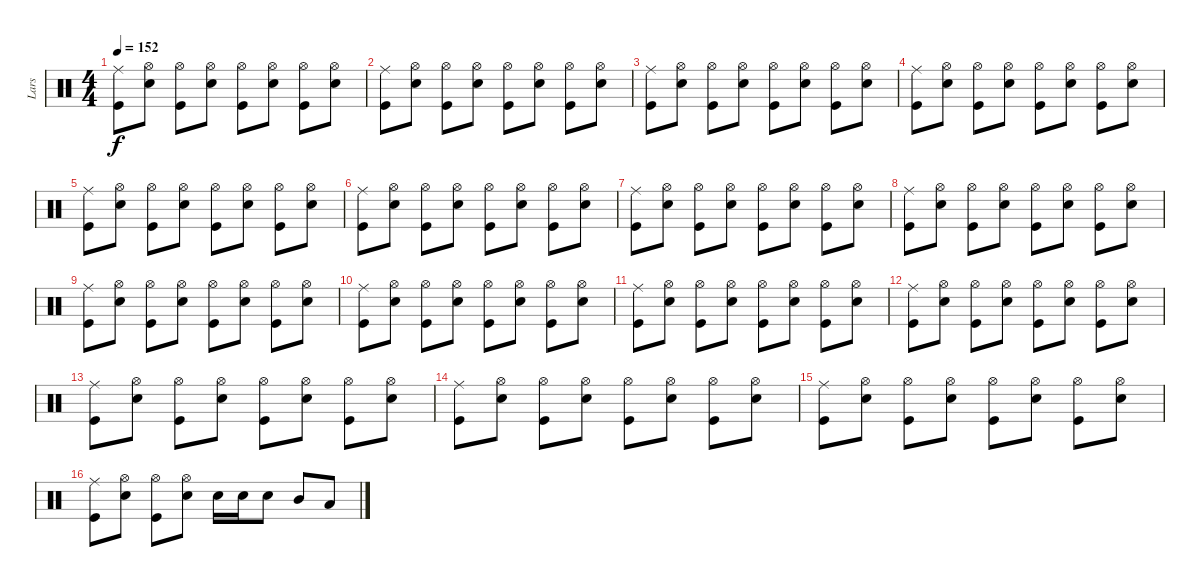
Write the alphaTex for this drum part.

\track ("Lars" "Lars") {instrument percussion}
\staff {score}
\articulation defaults
\ts (4 4)
\tempo 152
\clef neutral
\ks c
("Ride (middle)" "Kick (hit)").8{dy f} ("Hi-Hat (open)" "Snare (hit) 2").8 ("Hi-Hat (open)" "Kick (hit)").8 ("Hi-Hat (open)" "Snare (hit) 2").8 ("Hi-Hat (open)" "Kick (hit)").8 ("Hi-Hat (open)" "Snare (hit) 2").8 ("Hi-Hat (open)" "Kick (hit)").8 ("Hi-Hat (open)" "Snare (hit) 2").8 |
("Ride (middle)" "Kick (hit)").8 ("Hi-Hat (open)" "Snare (hit) 2").8 ("Hi-Hat (open)" "Kick (hit)").8 ("Hi-Hat (open)" "Snare (hit) 2").8 ("Hi-Hat (open)" "Kick (hit)").8 ("Hi-Hat (open)" "Snare (hit) 2").8 ("Hi-Hat (open)" "Kick (hit)").8 ("Hi-Hat (open)" "Snare (hit) 2").8 |
("Ride (middle)" "Kick (hit)").8 ("Hi-Hat (open)" "Snare (hit) 2").8 ("Hi-Hat (open)" "Kick (hit)").8 ("Hi-Hat (open)" "Snare (hit) 2").8 ("Hi-Hat (open)" "Kick (hit)").8 ("Hi-Hat (open)" "Snare (hit) 2").8 ("Hi-Hat (open)" "Kick (hit)").8 ("Hi-Hat (open)" "Snare (hit) 2").8 |
("Ride (middle)" "Kick (hit)").8 ("Hi-Hat (open)" "Snare (hit) 2").8 ("Hi-Hat (open)" "Kick (hit)").8 ("Hi-Hat (open)" "Snare (hit) 2").8 ("Hi-Hat (open)" "Kick (hit)").8 ("Hi-Hat (open)" "Snare (hit) 2").8 ("Hi-Hat (open)" "Kick (hit)").8 ("Hi-Hat (open)" "Snare (hit) 2").8 |
("Ride (middle)" "Kick (hit)").8 ("Hi-Hat (open)" "Snare (hit) 2").8 ("Hi-Hat (open)" "Kick (hit)").8 ("Hi-Hat (open)" "Snare (hit) 2").8 ("Hi-Hat (open)" "Kick (hit)").8 ("Hi-Hat (open)" "Snare (hit) 2").8 ("Hi-Hat (open)" "Kick (hit)").8 ("Hi-Hat (open)" "Snare (hit) 2").8 |
("Ride (middle)" "Kick (hit)").8 ("Hi-Hat (open)" "Snare (hit) 2").8 ("Hi-Hat (open)" "Kick (hit)").8 ("Hi-Hat (open)" "Snare (hit) 2").8 ("Hi-Hat (open)" "Kick (hit)").8 ("Hi-Hat (open)" "Snare (hit) 2").8 ("Hi-Hat (open)" "Kick (hit)").8 ("Hi-Hat (open)" "Snare (hit) 2").8 |
("Ride (middle)" "Kick (hit)").8 ("Hi-Hat (open)" "Snare (hit) 2").8 ("Hi-Hat (open)" "Kick (hit)").8 ("Hi-Hat (open)" "Snare (hit) 2").8 ("Hi-Hat (open)" "Kick (hit)").8 ("Hi-Hat (open)" "Snare (hit) 2").8 ("Hi-Hat (open)" "Kick (hit)").8 ("Hi-Hat (open)" "Snare (hit) 2").8 |
("Ride (middle)" "Kick (hit)").8 ("Hi-Hat (open)" "Snare (hit) 2").8 ("Hi-Hat (open)" "Kick (hit)").8 ("Hi-Hat (open)" "Snare (hit) 2").8 ("Hi-Hat (open)" "Kick (hit)").8 ("Hi-Hat (open)" "Snare (hit) 2").8 ("Hi-Hat (open)" "Kick (hit)").8 ("Hi-Hat (open)" "Snare (hit) 2").8 |
("Ride (middle)" "Kick (hit)").8 ("Hi-Hat (open)" "Snare (hit) 2").8 ("Hi-Hat (open)" "Kick (hit)").8 ("Hi-Hat (open)" "Snare (hit) 2").8 ("Hi-Hat (open)" "Kick (hit)").8 ("Hi-Hat (open)" "Snare (hit) 2").8 ("Hi-Hat (open)" "Kick (hit)").8 ("Hi-Hat (open)" "Snare (hit) 2").8 |
("Ride (middle)" "Kick (hit)").8 ("Hi-Hat (open)" "Snare (hit) 2").8 ("Hi-Hat (open)" "Kick (hit)").8 ("Hi-Hat (open)" "Snare (hit) 2").8 ("Hi-Hat (open)" "Kick (hit)").8 ("Hi-Hat (open)" "Snare (hit) 2").8 ("Hi-Hat (open)" "Kick (hit)").8 ("Hi-Hat (open)" "Snare (hit) 2").8 |
("Ride (middle)" "Kick (hit)").8 ("Hi-Hat (open)" "Snare (hit) 2").8 ("Hi-Hat (open)" "Kick (hit)").8 ("Hi-Hat (open)" "Snare (hit) 2").8 ("Hi-Hat (open)" "Kick (hit)").8 ("Hi-Hat (open)" "Snare (hit) 2").8 ("Hi-Hat (open)" "Kick (hit)").8 ("Hi-Hat (open)" "Snare (hit) 2").8 |
("Ride (middle)" "Kick (hit)").8 ("Hi-Hat (open)" "Snare (hit) 2").8 ("Hi-Hat (open)" "Kick (hit)").8 ("Hi-Hat (open)" "Snare (hit) 2").8 ("Hi-Hat (open)" "Kick (hit)").8 ("Hi-Hat (open)" "Snare (hit) 2").8 ("Hi-Hat (open)" "Kick (hit)").8 ("Hi-Hat (open)" "Snare (hit) 2").8 |
("Ride (middle)" "Kick (hit)").8 ("Hi-Hat (open)" "Snare (hit) 2").8 ("Hi-Hat (open)" "Kick (hit)").8 ("Hi-Hat (open)" "Snare (hit) 2").8 ("Hi-Hat (open)" "Kick (hit)").8 ("Hi-Hat (open)" "Snare (hit) 2").8 ("Hi-Hat (open)" "Kick (hit)").8 ("Hi-Hat (open)" "Snare (hit) 2").8 |
("Ride (middle)" "Kick (hit)").8 ("Hi-Hat (open)" "Snare (hit) 2").8 ("Hi-Hat (open)" "Kick (hit)").8 ("Hi-Hat (open)" "Snare (hit) 2").8 ("Hi-Hat (open)" "Kick (hit)").8 ("Hi-Hat (open)" "Snare (hit) 2").8 ("Hi-Hat (open)" "Kick (hit)").8 ("Hi-Hat (open)" "Snare (hit) 2").8 |
("Ride (middle)" "Kick (hit)").8 ("Hi-Hat (open)" "Snare (hit) 2").8 ("Hi-Hat (open)" "Kick (hit)").8 ("Hi-Hat (open)" "Snare (hit) 2").8 ("Hi-Hat (open)" "Kick (hit)").8 ("Hi-Hat (open)" "Snare (hit) 2").8 ("Hi-Hat (open)" "Kick (hit)").8 ("Hi-Hat (open)" "Snare (hit) 2").8 |
("Ride (middle)" "Kick (hit)").8 ("Hi-Hat (open)" "Snare (hit) 2").8 ("Hi-Hat (open)" "Kick (hit)").8 ("Hi-Hat (open)" "Snare (hit) 2").8 "Snare (hit) 2".16 "Snare (hit) 2".16 "Snare (hit) 2".8 "Mid Tom (hit)".8 "Low Tom (hit)".8
